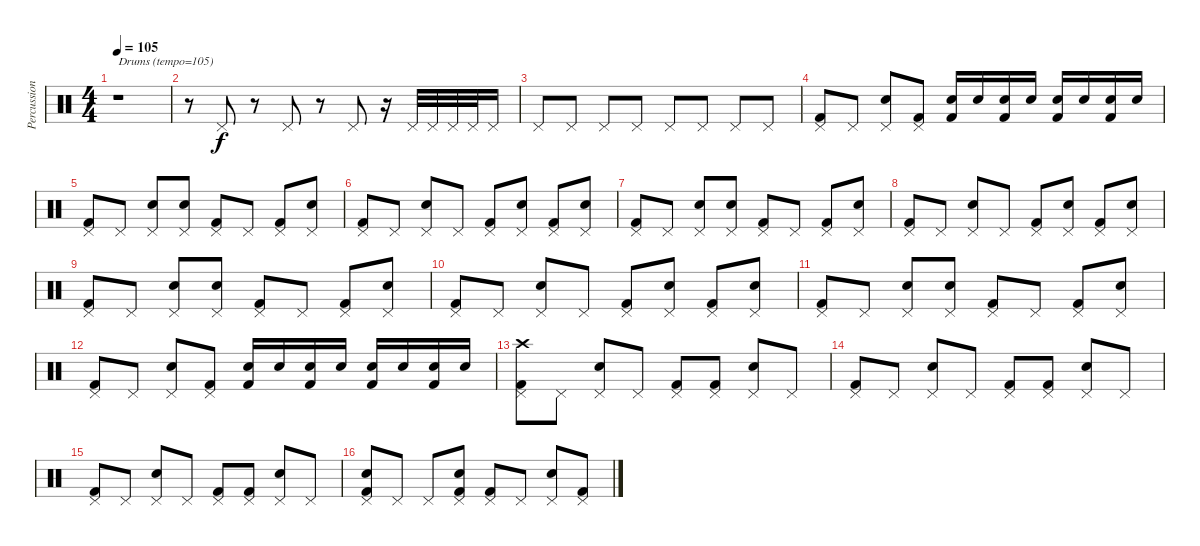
\track ("Percussion" "Percussion") {instrument percussion}
\staff {score}
\articulation defaults
\ts (4 4)
\tempo 105
\clef neutral
\ks c
r.1{txt "Drums (tempo=105)" dy f} |
r.8 "Pedal Hi-Hat (hit)".8 r.8 "Pedal Hi-Hat (hit)".8 r.8 "Pedal Hi-Hat (hit)".8 r.16 "Pedal Hi-Hat (hit)".32 "Pedal Hi-Hat (hit)".32 "Pedal Hi-Hat (hit)".32 "Pedal Hi-Hat (hit)".32 "Pedal Hi-Hat (hit)".16 |
"Pedal Hi-Hat (hit)".8 "Pedal Hi-Hat (hit)".8 "Pedal Hi-Hat (hit)".8 "Pedal Hi-Hat (hit)".8 "Pedal Hi-Hat (hit)".8 "Pedal Hi-Hat (hit)".8 "Pedal Hi-Hat (hit)".8 "Pedal Hi-Hat (hit)".8 |
("Pedal Hi-Hat (hit)" "Kick (hit) 2").8 "Pedal Hi-Hat (hit)".8 ("Pedal Hi-Hat (hit)" "Snare (hit) 2").8 ("Pedal Hi-Hat (hit)" "Kick (hit) 2").8 ("Snare (hit) 2" "Kick (hit) 2").16 "Snare (hit) 2".16 ("Snare (hit) 2" "Kick (hit) 2").16 "Snare (hit) 2".16 ("Snare (hit) 2" "Kick (hit) 2").16 "Snare (hit) 2".16 ("Snare (hit) 2" "Kick (hit) 2").16 "Snare (hit) 2".16 |
("Pedal Hi-Hat (hit)" "Kick (hit) 2").8 "Pedal Hi-Hat (hit)".8 ("Pedal Hi-Hat (hit)" "Snare (hit) 2").8 ("Pedal Hi-Hat (hit)" "Snare (hit) 2").8 ("Pedal Hi-Hat (hit)" "Kick (hit) 2").8 "Pedal Hi-Hat (hit)".8 ("Pedal Hi-Hat (hit)" "Kick (hit) 2").8 ("Pedal Hi-Hat (hit)" "Snare (hit) 2").8 |
("Pedal Hi-Hat (hit)" "Kick (hit) 2").8 "Pedal Hi-Hat (hit)".8 ("Pedal Hi-Hat (hit)" "Snare (hit) 2").8 "Pedal Hi-Hat (hit)".8 ("Pedal Hi-Hat (hit)" "Kick (hit) 2").8 ("Pedal Hi-Hat (hit)" "Snare (hit) 2").8 ("Pedal Hi-Hat (hit)" "Kick (hit) 2").8 ("Pedal Hi-Hat (hit)" "Snare (hit) 2").8 |
("Pedal Hi-Hat (hit)" "Kick (hit) 2").8 "Pedal Hi-Hat (hit)".8 ("Pedal Hi-Hat (hit)" "Snare (hit) 2").8 ("Pedal Hi-Hat (hit)" "Snare (hit) 2").8 ("Pedal Hi-Hat (hit)" "Kick (hit) 2").8 "Pedal Hi-Hat (hit)".8 ("Pedal Hi-Hat (hit)" "Kick (hit) 2").8 ("Pedal Hi-Hat (hit)" "Snare (hit) 2").8 |
("Pedal Hi-Hat (hit)" "Kick (hit) 2").8 "Pedal Hi-Hat (hit)".8 ("Pedal Hi-Hat (hit)" "Snare (hit) 2").8 "Pedal Hi-Hat (hit)".8 ("Pedal Hi-Hat (hit)" "Kick (hit) 2").8 ("Pedal Hi-Hat (hit)" "Snare (hit) 2").8 ("Pedal Hi-Hat (hit)" "Kick (hit) 2").8 ("Pedal Hi-Hat (hit)" "Snare (hit) 2").8 |
("Pedal Hi-Hat (hit)" "Kick (hit) 2").8 "Pedal Hi-Hat (hit)".8 ("Pedal Hi-Hat (hit)" "Snare (hit) 2").8 ("Pedal Hi-Hat (hit)" "Snare (hit) 2").8 ("Pedal Hi-Hat (hit)" "Kick (hit) 2").8 "Pedal Hi-Hat (hit)".8 ("Pedal Hi-Hat (hit)" "Kick (hit) 2").8 ("Pedal Hi-Hat (hit)" "Snare (hit) 2").8 |
("Pedal Hi-Hat (hit)" "Kick (hit) 2").8 "Pedal Hi-Hat (hit)".8 ("Pedal Hi-Hat (hit)" "Snare (hit) 2").8 "Pedal Hi-Hat (hit)".8 ("Pedal Hi-Hat (hit)" "Kick (hit) 2").8 ("Pedal Hi-Hat (hit)" "Snare (hit) 2").8 ("Pedal Hi-Hat (hit)" "Kick (hit) 2").8 ("Pedal Hi-Hat (hit)" "Snare (hit) 2").8 |
("Pedal Hi-Hat (hit)" "Kick (hit) 2").8 "Pedal Hi-Hat (hit)".8 ("Pedal Hi-Hat (hit)" "Snare (hit) 2").8 ("Pedal Hi-Hat (hit)" "Snare (hit) 2").8 ("Pedal Hi-Hat (hit)" "Kick (hit) 2").8 "Pedal Hi-Hat (hit)".8 ("Pedal Hi-Hat (hit)" "Kick (hit) 2").8 ("Pedal Hi-Hat (hit)" "Snare (hit) 2").8 |
("Pedal Hi-Hat (hit)" "Kick (hit) 2").8 "Pedal Hi-Hat (hit)".8 ("Pedal Hi-Hat (hit)" "Snare (hit) 2").8 ("Pedal Hi-Hat (hit)" "Kick (hit) 2").8 ("Snare (hit) 2" "Kick (hit) 2").16 "Snare (hit) 2".16 ("Snare (hit) 2" "Kick (hit) 2").16 "Snare (hit) 2".16 ("Snare (hit) 2" "Kick (hit) 2").16 "Snare (hit) 2".16 ("Snare (hit) 2" "Kick (hit) 2").16 "Snare (hit) 2".16 |
("Pedal Hi-Hat (hit)" "Crash high (hit)" "Kick (hit) 2").8 "Pedal Hi-Hat (hit)".8 ("Pedal Hi-Hat (hit)" "Snare (hit) 2").8 "Pedal Hi-Hat (hit)".8 ("Pedal Hi-Hat (hit)" "Kick (hit) 2").8 ("Pedal Hi-Hat (hit)" "Kick (hit) 2").8 ("Pedal Hi-Hat (hit)" "Snare (hit) 2").8 "Pedal Hi-Hat (hit)".8 |
("Pedal Hi-Hat (hit)" "Kick (hit) 2").8 "Pedal Hi-Hat (hit)".8 ("Pedal Hi-Hat (hit)" "Snare (hit) 2").8 "Pedal Hi-Hat (hit)".8 ("Pedal Hi-Hat (hit)" "Kick (hit) 2").8 ("Pedal Hi-Hat (hit)" "Kick (hit) 2").8 ("Pedal Hi-Hat (hit)" "Snare (hit) 2").8 "Pedal Hi-Hat (hit)".8 |
("Pedal Hi-Hat (hit)" "Kick (hit) 2").8 "Pedal Hi-Hat (hit)".8 ("Pedal Hi-Hat (hit)" "Snare (hit) 2").8 "Pedal Hi-Hat (hit)".8 ("Pedal Hi-Hat (hit)" "Kick (hit) 2").8 ("Pedal Hi-Hat (hit)" "Kick (hit) 2").8 ("Pedal Hi-Hat (hit)" "Snare (hit) 2").8 "Pedal Hi-Hat (hit)".8 |
("Pedal Hi-Hat (hit)" "Snare (hit) 2" "Kick (hit) 2").8 "Pedal Hi-Hat (hit)".8 "Pedal Hi-Hat (hit)".8 ("Pedal Hi-Hat (hit)" "Snare (hit) 2" "Kick (hit) 2").8 ("Pedal Hi-Hat (hit)" "Kick (hit) 2").8 "Pedal Hi-Hat (hit)".8 ("Pedal Hi-Hat (hit)" "Snare (hit) 2").8 ("Pedal Hi-Hat (hit)" "Kick (hit) 2").8
